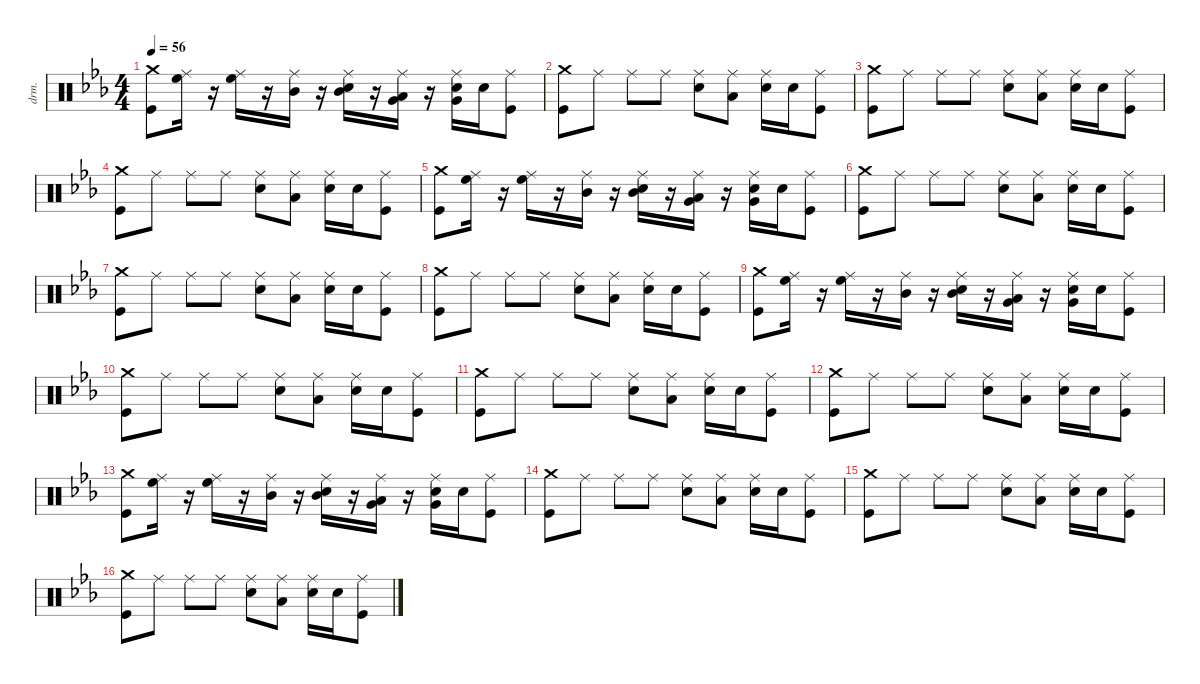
\defaultSystemsLayout 4
\hideDynamics
\bracketExtendMode nobrackets
\otherSystemsTrackNameOrientation horizontal
\track ("Percussion" "drm.") {instrument percussion}
\staff {score}
\articulation defaults
\ts (4 4)
\tempo 56
\clef neutral
\ks eb
("Crash medium (hit)"{acc forcenatural} "Kick (hit)"{acc forcenatural}).8{dy f beam Down} ("High Floor Tom (hit)"{acc forcenatural} "Ride (middle)"{acc forcenatural}).16{beam Down} r.16{beam Down} ("High Floor Tom (hit)"{acc forcenatural} "Ride (middle)"{acc forcenatural}).16{beam Down} r.16{beam Down} ("Mid Tom (hit)"{acc forcenatural} "Ride (middle)"{acc forcenatural}).16{beam Down} r.16{beam Down} ("Mid Tom (hit)"{acc forcenatural} "Snare (hit) 2"{acc forcenatural} "Ride (middle)"{acc forcenatural}).16{beam Down} r.16{beam Down} ("Very Low Tom (hit)"{acc forcenatural} "Low Floor Tom (hit)"{acc forcenatural} "Ride (middle)"{acc forcenatural}).16{beam Down} r.16{beam Down} ("Very Low Tom (hit)"{acc forcenatural} "Snare (hit) 2"{acc forcenatural} "Ride (middle)"{acc forcenatural}).16{beam Down} "Snare (hit) 2"{acc forcenatural}.16{beam Down} ("Kick (hit)"{acc forcenatural} "Ride (middle)"{acc forcenatural}).8{beam Down} |
("Crash medium (hit)"{acc forcenatural} "Kick (hit)"{acc forcenatural}).8{beam Down} "Ride (middle)"{acc forcenatural}.8{beam Down} "Ride (middle)"{acc forcenatural}.8{beam Down} "Ride (middle)"{acc forcenatural}.8{beam Down} ("Snare (hit) 2"{acc forcenatural} "Ride (middle)"{acc forcenatural}).8{beam Down} ("Low Floor Tom (hit)"{acc forcenatural} "Ride (middle)"{acc forcenatural}).8{beam Down} ("Snare (hit) 2"{acc forcenatural} "Ride (middle)"{acc forcenatural}).16{beam Down} "Snare (hit) 2"{acc forcenatural}.16{beam Down} ("Kick (hit)"{acc forcenatural} "Ride (middle)"{acc forcenatural}).8{beam Down} |
("Crash medium (hit)"{acc forcenatural} "Kick (hit)"{acc forcenatural}).8{beam Down} "Ride (middle)"{acc forcenatural}.8{beam Down} "Ride (middle)"{acc forcenatural}.8{beam Down} "Ride (middle)"{acc forcenatural}.8{beam Down} ("Snare (hit) 2"{acc forcenatural} "Ride (middle)"{acc forcenatural}).8{beam Down} ("Low Floor Tom (hit)"{acc forcenatural} "Ride (middle)"{acc forcenatural}).8{beam Down} ("Snare (hit) 2"{acc forcenatural} "Ride (middle)"{acc forcenatural}).16{beam Down} "Snare (hit) 2"{acc forcenatural}.16{beam Down} ("Kick (hit)"{acc forcenatural} "Ride (middle)"{acc forcenatural}).8{beam Down} |
("Crash medium (hit)"{acc forcenatural} "Kick (hit)"{acc forcenatural}).8{beam Down} "Ride (middle)"{acc forcenatural}.8{beam Down} "Ride (middle)"{acc forcenatural}.8{beam Down} "Ride (middle)"{acc forcenatural}.8{beam Down} ("Snare (hit) 2"{acc forcenatural} "Ride (middle)"{acc forcenatural}).8{beam Down} ("Low Floor Tom (hit)"{acc forcenatural} "Ride (middle)"{acc forcenatural}).8{beam Down} ("Snare (hit) 2"{acc forcenatural} "Ride (middle)"{acc forcenatural}).16{beam Down} "Snare (hit) 2"{acc forcenatural}.16{beam Down} ("Kick (hit)"{acc forcenatural} "Ride (middle)"{acc forcenatural}).8{beam Down} |
("Crash medium (hit)"{acc forcenatural} "Kick (hit)"{acc forcenatural}).8{beam Down} ("High Floor Tom (hit)"{acc forcenatural} "Ride (middle)"{acc forcenatural}).16{beam Down} r.16{beam Down} ("High Floor Tom (hit)"{acc forcenatural} "Ride (middle)"{acc forcenatural}).16{beam Down} r.16{beam Down} ("Mid Tom (hit)"{acc forcenatural} "Ride (middle)"{acc forcenatural}).16{beam Down} r.16{beam Down} ("Mid Tom (hit)"{acc forcenatural} "Snare (hit) 2"{acc forcenatural} "Ride (middle)"{acc forcenatural}).16{beam Down} r.16{beam Down} ("Very Low Tom (hit)"{acc forcenatural} "Low Floor Tom (hit)"{acc forcenatural} "Ride (middle)"{acc forcenatural}).16{beam Down} r.16{beam Down} ("Very Low Tom (hit)"{acc forcenatural} "Snare (hit) 2"{acc forcenatural} "Ride (middle)"{acc forcenatural}).16{beam Down} "Snare (hit) 2"{acc forcenatural}.16{beam Down} ("Kick (hit)"{acc forcenatural} "Ride (middle)"{acc forcenatural}).8{beam Down} |
("Crash medium (hit)"{acc forcenatural} "Kick (hit)"{acc forcenatural}).8{beam Down} "Ride (middle)"{acc forcenatural}.8{beam Down} "Ride (middle)"{acc forcenatural}.8{beam Down} "Ride (middle)"{acc forcenatural}.8{beam Down} ("Snare (hit) 2"{acc forcenatural} "Ride (middle)"{acc forcenatural}).8{beam Down} ("Low Floor Tom (hit)"{acc forcenatural} "Ride (middle)"{acc forcenatural}).8{beam Down} ("Snare (hit) 2"{acc forcenatural} "Ride (middle)"{acc forcenatural}).16{beam Down} "Snare (hit) 2"{acc forcenatural}.16{beam Down} ("Kick (hit)"{acc forcenatural} "Ride (middle)"{acc forcenatural}).8{beam Down} |
("Crash medium (hit)"{acc forcenatural} "Kick (hit)"{acc forcenatural}).8{beam Down} "Ride (middle)"{acc forcenatural}.8{beam Down} "Ride (middle)"{acc forcenatural}.8{beam Down} "Ride (middle)"{acc forcenatural}.8{beam Down} ("Snare (hit) 2"{acc forcenatural} "Ride (middle)"{acc forcenatural}).8{beam Down} ("Low Floor Tom (hit)"{acc forcenatural} "Ride (middle)"{acc forcenatural}).8{beam Down} ("Snare (hit) 2"{acc forcenatural} "Ride (middle)"{acc forcenatural}).16{beam Down} "Snare (hit) 2"{acc forcenatural}.16{beam Down} ("Kick (hit)"{acc forcenatural} "Ride (middle)"{acc forcenatural}).8{beam Down} |
("Crash medium (hit)"{acc forcenatural} "Kick (hit)"{acc forcenatural}).8{beam Down} "Ride (middle)"{acc forcenatural}.8{beam Down} "Ride (middle)"{acc forcenatural}.8{beam Down} "Ride (middle)"{acc forcenatural}.8{beam Down} ("Snare (hit) 2"{acc forcenatural} "Ride (middle)"{acc forcenatural}).8{beam Down} ("Low Floor Tom (hit)"{acc forcenatural} "Ride (middle)"{acc forcenatural}).8{beam Down} ("Snare (hit) 2"{acc forcenatural} "Ride (middle)"{acc forcenatural}).16{beam Down} "Snare (hit) 2"{acc forcenatural}.16{beam Down} ("Kick (hit)"{acc forcenatural} "Ride (middle)"{acc forcenatural}).8{beam Down} |
("Crash medium (hit)"{acc forcenatural} "Kick (hit)"{acc forcenatural}).8{beam Down} ("High Floor Tom (hit)"{acc forcenatural} "Ride (middle)"{acc forcenatural}).16{beam Down} r.16{beam Down} ("High Floor Tom (hit)"{acc forcenatural} "Ride (middle)"{acc forcenatural}).16{beam Down} r.16{beam Down} ("Mid Tom (hit)"{acc forcenatural} "Ride (middle)"{acc forcenatural}).16{beam Down} r.16{beam Down} ("Mid Tom (hit)"{acc forcenatural} "Snare (hit) 2"{acc forcenatural} "Ride (middle)"{acc forcenatural}).16{beam Down} r.16{beam Down} ("Very Low Tom (hit)"{acc forcenatural} "Low Floor Tom (hit)"{acc forcenatural} "Ride (middle)"{acc forcenatural}).16{beam Down} r.16{beam Down} ("Very Low Tom (hit)"{acc forcenatural} "Snare (hit) 2"{acc forcenatural} "Ride (middle)"{acc forcenatural}).16{beam Down} "Snare (hit) 2"{acc forcenatural}.16{beam Down} ("Kick (hit)"{acc forcenatural} "Ride (middle)"{acc forcenatural}).8{beam Down} |
("Crash medium (hit)"{acc forcenatural} "Kick (hit)"{acc forcenatural}).8{beam Down} "Ride (middle)"{acc forcenatural}.8{beam Down} "Ride (middle)"{acc forcenatural}.8{beam Down} "Ride (middle)"{acc forcenatural}.8{beam Down} ("Snare (hit) 2"{acc forcenatural} "Ride (middle)"{acc forcenatural}).8{beam Down} ("Low Floor Tom (hit)"{acc forcenatural} "Ride (middle)"{acc forcenatural}).8{beam Down} ("Snare (hit) 2"{acc forcenatural} "Ride (middle)"{acc forcenatural}).16{beam Down} "Snare (hit) 2"{acc forcenatural}.16{beam Down} ("Kick (hit)"{acc forcenatural} "Ride (middle)"{acc forcenatural}).8{beam Down} |
("Crash medium (hit)"{acc forcenatural} "Kick (hit)"{acc forcenatural}).8{beam Down} "Ride (middle)"{acc forcenatural}.8{beam Down} "Ride (middle)"{acc forcenatural}.8{beam Down} "Ride (middle)"{acc forcenatural}.8{beam Down} ("Snare (hit) 2"{acc forcenatural} "Ride (middle)"{acc forcenatural}).8{beam Down} ("Low Floor Tom (hit)"{acc forcenatural} "Ride (middle)"{acc forcenatural}).8{beam Down} ("Snare (hit) 2"{acc forcenatural} "Ride (middle)"{acc forcenatural}).16{beam Down} "Snare (hit) 2"{acc forcenatural}.16{beam Down} ("Kick (hit)"{acc forcenatural} "Ride (middle)"{acc forcenatural}).8{beam Down} |
("Crash medium (hit)"{acc forcenatural} "Kick (hit)"{acc forcenatural}).8{beam Down} "Ride (middle)"{acc forcenatural}.8{beam Down} "Ride (middle)"{acc forcenatural}.8{beam Down} "Ride (middle)"{acc forcenatural}.8{beam Down} ("Snare (hit) 2"{acc forcenatural} "Ride (middle)"{acc forcenatural}).8{beam Down} ("Low Floor Tom (hit)"{acc forcenatural} "Ride (middle)"{acc forcenatural}).8{beam Down} ("Snare (hit) 2"{acc forcenatural} "Ride (middle)"{acc forcenatural}).16{beam Down} "Snare (hit) 2"{acc forcenatural}.16{beam Down} ("Kick (hit)"{acc forcenatural} "Ride (middle)"{acc forcenatural}).8{beam Down} |
("Crash medium (hit)"{acc forcenatural} "Kick (hit)"{acc forcenatural}).8{beam Down} ("High Floor Tom (hit)"{acc forcenatural} "Ride (middle)"{acc forcenatural}).16{beam Down} r.16{beam Down} ("High Floor Tom (hit)"{acc forcenatural} "Ride (middle)"{acc forcenatural}).16{beam Down} r.16{beam Down} ("Mid Tom (hit)"{acc forcenatural} "Ride (middle)"{acc forcenatural}).16{beam Down} r.16{beam Down} ("Mid Tom (hit)"{acc forcenatural} "Snare (hit) 2"{acc forcenatural} "Ride (middle)"{acc forcenatural}).16{beam Down} r.16{beam Down} ("Very Low Tom (hit)"{acc forcenatural} "Low Floor Tom (hit)"{acc forcenatural} "Ride (middle)"{acc forcenatural}).16{beam Down} r.16{beam Down} ("Very Low Tom (hit)"{acc forcenatural} "Snare (hit) 2"{acc forcenatural} "Ride (middle)"{acc forcenatural}).16{beam Down} "Snare (hit) 2"{acc forcenatural}.16{beam Down} ("Kick (hit)"{acc forcenatural} "Ride (middle)"{acc forcenatural}).8{beam Down} |
("Crash medium (hit)"{acc forcenatural} "Kick (hit)"{acc forcenatural}).8{beam Down} "Ride (middle)"{acc forcenatural}.8{beam Down} "Ride (middle)"{acc forcenatural}.8{beam Down} "Ride (middle)"{acc forcenatural}.8{beam Down} ("Snare (hit) 2"{acc forcenatural} "Ride (middle)"{acc forcenatural}).8{beam Down} ("Low Floor Tom (hit)"{acc forcenatural} "Ride (middle)"{acc forcenatural}).8{beam Down} ("Snare (hit) 2"{acc forcenatural} "Ride (middle)"{acc forcenatural}).16{beam Down} "Snare (hit) 2"{acc forcenatural}.16{beam Down} ("Kick (hit)"{acc forcenatural} "Ride (middle)"{acc forcenatural}).8{beam Down} |
("Crash medium (hit)"{acc forcenatural} "Kick (hit)"{acc forcenatural}).8{beam Down} "Ride (middle)"{acc forcenatural}.8{beam Down} "Ride (middle)"{acc forcenatural}.8{beam Down} "Ride (middle)"{acc forcenatural}.8{beam Down} ("Snare (hit) 2"{acc forcenatural} "Ride (middle)"{acc forcenatural}).8{beam Down} ("Low Floor Tom (hit)"{acc forcenatural} "Ride (middle)"{acc forcenatural}).8{beam Down} ("Snare (hit) 2"{acc forcenatural} "Ride (middle)"{acc forcenatural}).16{beam Down} "Snare (hit) 2"{acc forcenatural}.16{beam Down} ("Kick (hit)"{acc forcenatural} "Ride (middle)"{acc forcenatural}).8{beam Down} |
("Crash medium (hit)"{acc forcenatural} "Kick (hit)"{acc forcenatural}).8{beam Down} "Ride (middle)"{acc forcenatural}.8{beam Down} "Ride (middle)"{acc forcenatural}.8{beam Down} "Ride (middle)"{acc forcenatural}.8{beam Down} ("Snare (hit) 2"{acc forcenatural} "Ride (middle)"{acc forcenatural}).8{beam Down} ("Low Floor Tom (hit)"{acc forcenatural} "Ride (middle)"{acc forcenatural}).8{beam Down} ("Snare (hit) 2"{acc forcenatural} "Ride (middle)"{acc forcenatural}).16{beam Down} "Snare (hit) 2"{acc forcenatural}.16{beam Down} ("Kick (hit)"{acc forcenatural} "Ride (middle)"{acc forcenatural}).8{beam Down}
